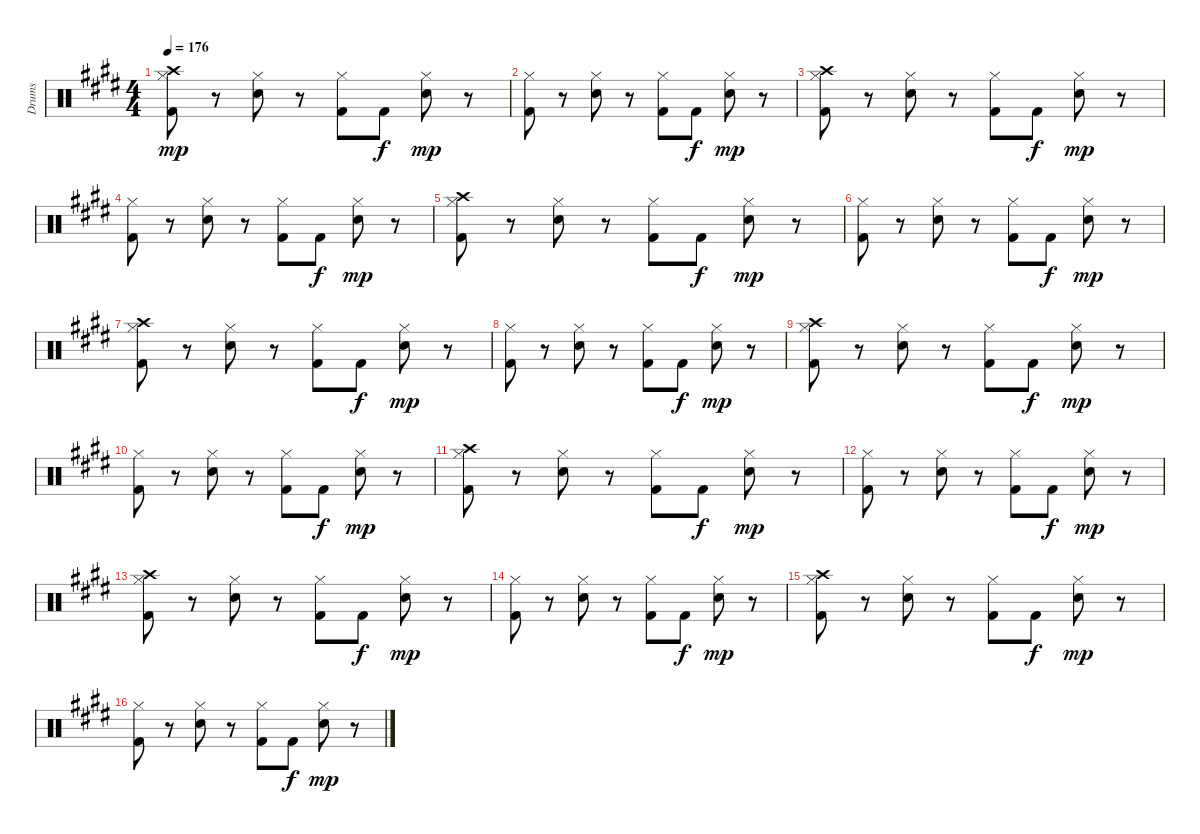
\track ("Drums" "Drums") {instrument percussion}
\staff {score}
\articulation defaults
\ts (4 4)
\tempo 176
\clef neutral
\ks e
("Crash high (hit)" "Hi-Hat (closed)" "Kick (hit) 2").8{dy mp} r.8 ("Hi-Hat (closed)" "Snare (hit) 2").8 r.8 ("Hi-Hat (closed)" "Kick (hit) 2").8 "Kick (hit) 2".8{dy f} ("Hi-Hat (closed)" "Snare (hit) 2").8{dy mp} r.8 |
("Hi-Hat (closed)" "Kick (hit) 2").8 r.8 ("Hi-Hat (closed)" "Snare (hit) 2").8 r.8 ("Hi-Hat (closed)" "Kick (hit) 2").8 "Kick (hit) 2".8{dy f} ("Hi-Hat (closed)" "Snare (hit) 2").8{dy mp} r.8 |
("Crash high (hit)" "Hi-Hat (closed)" "Kick (hit) 2").8 r.8 ("Hi-Hat (closed)" "Snare (hit) 2").8 r.8 ("Hi-Hat (closed)" "Kick (hit) 2").8 "Kick (hit) 2".8{dy f} ("Hi-Hat (closed)" "Snare (hit) 2").8{dy mp} r.8 |
("Hi-Hat (closed)" "Kick (hit) 2").8 r.8 ("Hi-Hat (closed)" "Snare (hit) 2").8 r.8 ("Hi-Hat (closed)" "Kick (hit) 2").8 "Kick (hit) 2".8{dy f} ("Hi-Hat (closed)" "Snare (hit) 2").8{dy mp} r.8 |
("Crash high (hit)" "Hi-Hat (closed)" "Kick (hit) 2").8 r.8 ("Hi-Hat (closed)" "Snare (hit) 2").8 r.8 ("Hi-Hat (closed)" "Kick (hit) 2").8 "Kick (hit) 2".8{dy f} ("Hi-Hat (closed)" "Snare (hit) 2").8{dy mp} r.8 |
("Hi-Hat (closed)" "Kick (hit) 2").8 r.8 ("Hi-Hat (closed)" "Snare (hit) 2").8 r.8 ("Hi-Hat (closed)" "Kick (hit) 2").8 "Kick (hit) 2".8{dy f} ("Hi-Hat (closed)" "Snare (hit) 2").8{dy mp} r.8 |
("Crash high (hit)" "Hi-Hat (closed)" "Kick (hit) 2").8 r.8 ("Hi-Hat (closed)" "Snare (hit) 2").8 r.8 ("Hi-Hat (closed)" "Kick (hit) 2").8 "Kick (hit) 2".8{dy f} ("Hi-Hat (closed)" "Snare (hit) 2").8{dy mp} r.8 |
("Hi-Hat (closed)" "Kick (hit) 2").8 r.8 ("Hi-Hat (closed)" "Snare (hit) 2").8 r.8 ("Hi-Hat (closed)" "Kick (hit) 2").8 "Kick (hit) 2".8{dy f} ("Hi-Hat (closed)" "Snare (hit) 2").8{dy mp} r.8 |
("Crash high (hit)" "Hi-Hat (closed)" "Kick (hit) 2").8 r.8 ("Hi-Hat (closed)" "Snare (hit) 2").8 r.8 ("Hi-Hat (closed)" "Kick (hit) 2").8 "Kick (hit) 2".8{dy f} ("Hi-Hat (closed)" "Snare (hit) 2").8{dy mp} r.8 |
("Hi-Hat (closed)" "Kick (hit) 2").8 r.8 ("Hi-Hat (closed)" "Snare (hit) 2").8 r.8 ("Hi-Hat (closed)" "Kick (hit) 2").8 "Kick (hit) 2".8{dy f} ("Hi-Hat (closed)" "Snare (hit) 2").8{dy mp} r.8 |
("Crash high (hit)" "Hi-Hat (closed)" "Kick (hit) 2").8 r.8 ("Hi-Hat (closed)" "Snare (hit) 2").8 r.8 ("Hi-Hat (closed)" "Kick (hit) 2").8 "Kick (hit) 2".8{dy f} ("Hi-Hat (closed)" "Snare (hit) 2").8{dy mp} r.8 |
("Hi-Hat (closed)" "Kick (hit) 2").8 r.8 ("Hi-Hat (closed)" "Snare (hit) 2").8 r.8 ("Hi-Hat (closed)" "Kick (hit) 2").8 "Kick (hit) 2".8{dy f} ("Hi-Hat (closed)" "Snare (hit) 2").8{dy mp} r.8 |
("Crash high (hit)" "Hi-Hat (closed)" "Kick (hit) 2").8 r.8 ("Hi-Hat (closed)" "Snare (hit) 2").8 r.8 ("Hi-Hat (closed)" "Kick (hit) 2").8 "Kick (hit) 2".8{dy f} ("Hi-Hat (closed)" "Snare (hit) 2").8{dy mp} r.8 |
("Hi-Hat (closed)" "Kick (hit) 2").8 r.8 ("Hi-Hat (closed)" "Snare (hit) 2").8 r.8 ("Hi-Hat (closed)" "Kick (hit) 2").8 "Kick (hit) 2".8{dy f} ("Hi-Hat (closed)" "Snare (hit) 2").8{dy mp} r.8 |
("Crash high (hit)" "Hi-Hat (closed)" "Kick (hit) 2").8 r.8 ("Hi-Hat (closed)" "Snare (hit) 2").8 r.8 ("Hi-Hat (closed)" "Kick (hit) 2").8 "Kick (hit) 2".8{dy f} ("Hi-Hat (closed)" "Snare (hit) 2").8{dy mp} r.8 |
("Hi-Hat (closed)" "Kick (hit) 2").8 r.8 ("Hi-Hat (closed)" "Snare (hit) 2").8 r.8 ("Hi-Hat (closed)" "Kick (hit) 2").8 "Kick (hit) 2".8{dy f} ("Hi-Hat (closed)" "Snare (hit) 2").8{dy mp} r.8
